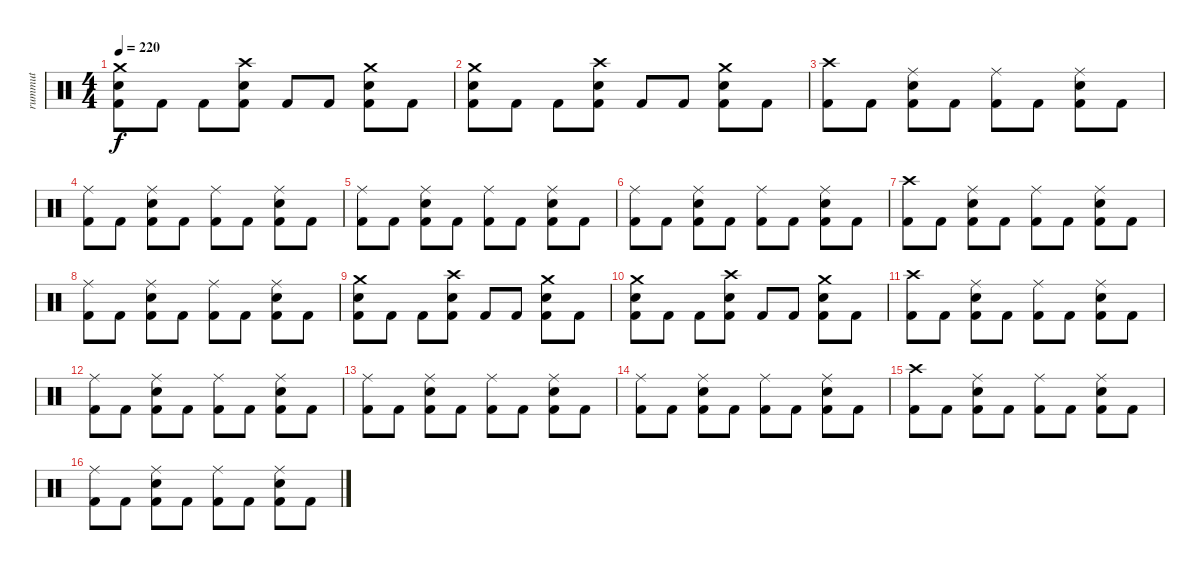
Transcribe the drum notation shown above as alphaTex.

\track ("rummut" "rummut") {instrument percussion}
\staff {score}
\articulation defaults
\ts (4 4)
\tempo 220
\clef neutral
\ks c
("Crash medium (hit)" "Electric Snare (hit)" "Kick (hit) 2").8{dy f} "Kick (hit) 2".8 "Kick (hit) 2".8 ("Crash high (hit)" "Electric Snare (hit)" "Kick (hit) 2").8 "Kick (hit) 2".8 "Kick (hit) 2".8 ("Crash medium (hit)" "Electric Snare (hit)" "Kick (hit) 2").8 "Kick (hit) 2".8 |
("Crash medium (hit)" "Electric Snare (hit)" "Kick (hit) 2").8 "Kick (hit) 2".8 "Kick (hit) 2".8 ("Crash high (hit)" "Electric Snare (hit)" "Kick (hit) 2").8 "Kick (hit) 2".8 "Kick (hit) 2".8 ("Crash medium (hit)" "Electric Snare (hit)" "Kick (hit) 2").8 "Kick (hit) 2".8 |
("Crash high (hit)" "Kick (hit) 2").8 "Kick (hit) 2".8 ("Ride (middle)" "Electric Snare (hit)" "Kick (hit) 2").8 "Kick (hit) 2".8 ("Ride (middle)" "Kick (hit) 2").8 "Kick (hit) 2".8 ("Ride (middle)" "Electric Snare (hit)" "Kick (hit) 2").8 "Kick (hit) 2".8 |
("Ride (middle)" "Kick (hit) 2").8 "Kick (hit) 2".8 ("Ride (middle)" "Electric Snare (hit)" "Kick (hit) 2").8 "Kick (hit) 2".8 ("Ride (middle)" "Kick (hit) 2").8 "Kick (hit) 2".8 ("Ride (middle)" "Electric Snare (hit)" "Kick (hit) 2").8 "Kick (hit) 2".8 |
("Ride (middle)" "Kick (hit) 2").8 "Kick (hit) 2".8 ("Ride (middle)" "Electric Snare (hit)" "Kick (hit) 2").8 "Kick (hit) 2".8 ("Ride (middle)" "Kick (hit) 2").8 "Kick (hit) 2".8 ("Ride (middle)" "Electric Snare (hit)" "Kick (hit) 2").8 "Kick (hit) 2".8 |
("Ride (middle)" "Kick (hit) 2").8 "Kick (hit) 2".8 ("Ride (middle)" "Electric Snare (hit)" "Kick (hit) 2").8 "Kick (hit) 2".8 ("Ride (middle)" "Kick (hit) 2").8 "Kick (hit) 2".8 ("Ride (middle)" "Electric Snare (hit)" "Kick (hit) 2").8 "Kick (hit) 2".8 |
("Crash high (hit)" "Kick (hit) 2").8 "Kick (hit) 2".8 ("Ride (middle)" "Electric Snare (hit)" "Kick (hit) 2").8 "Kick (hit) 2".8 ("Ride (middle)" "Kick (hit) 2").8 "Kick (hit) 2".8 ("Ride (middle)" "Electric Snare (hit)" "Kick (hit) 2").8 "Kick (hit) 2".8 |
("Ride (middle)" "Kick (hit) 2").8 "Kick (hit) 2".8 ("Ride (middle)" "Electric Snare (hit)" "Kick (hit) 2").8 "Kick (hit) 2".8 ("Ride (middle)" "Kick (hit) 2").8 "Kick (hit) 2".8 ("Ride (middle)" "Electric Snare (hit)" "Kick (hit) 2").8 "Kick (hit) 2".8 |
("Crash medium (hit)" "Electric Snare (hit)" "Kick (hit) 2").8 "Kick (hit) 2".8 "Kick (hit) 2".8 ("Crash high (hit)" "Electric Snare (hit)" "Kick (hit) 2").8 "Kick (hit) 2".8 "Kick (hit) 2".8 ("Crash medium (hit)" "Electric Snare (hit)" "Kick (hit) 2").8 "Kick (hit) 2".8 |
("Crash medium (hit)" "Electric Snare (hit)" "Kick (hit) 2").8 "Kick (hit) 2".8 "Kick (hit) 2".8 ("Crash high (hit)" "Electric Snare (hit)" "Kick (hit) 2").8 "Kick (hit) 2".8 "Kick (hit) 2".8 ("Crash medium (hit)" "Electric Snare (hit)" "Kick (hit) 2").8 "Kick (hit) 2".8 |
("Crash high (hit)" "Kick (hit) 2").8 "Kick (hit) 2".8 ("Ride (middle)" "Electric Snare (hit)" "Kick (hit) 2").8 "Kick (hit) 2".8 ("Ride (middle)" "Kick (hit) 2").8 "Kick (hit) 2".8 ("Ride (middle)" "Electric Snare (hit)" "Kick (hit) 2").8 "Kick (hit) 2".8 |
("Ride (middle)" "Kick (hit) 2").8 "Kick (hit) 2".8 ("Ride (middle)" "Electric Snare (hit)" "Kick (hit) 2").8 "Kick (hit) 2".8 ("Ride (middle)" "Kick (hit) 2").8 "Kick (hit) 2".8 ("Ride (middle)" "Electric Snare (hit)" "Kick (hit) 2").8 "Kick (hit) 2".8 |
("Ride (middle)" "Kick (hit) 2").8 "Kick (hit) 2".8 ("Ride (middle)" "Electric Snare (hit)" "Kick (hit) 2").8 "Kick (hit) 2".8 ("Ride (middle)" "Kick (hit) 2").8 "Kick (hit) 2".8 ("Ride (middle)" "Electric Snare (hit)" "Kick (hit) 2").8 "Kick (hit) 2".8 |
("Ride (middle)" "Kick (hit) 2").8 "Kick (hit) 2".8 ("Ride (middle)" "Electric Snare (hit)" "Kick (hit) 2").8 "Kick (hit) 2".8 ("Ride (middle)" "Kick (hit) 2").8 "Kick (hit) 2".8 ("Ride (middle)" "Electric Snare (hit)" "Kick (hit) 2").8 "Kick (hit) 2".8 |
("Crash high (hit)" "Kick (hit) 2").8 "Kick (hit) 2".8 ("Ride (middle)" "Electric Snare (hit)" "Kick (hit) 2").8 "Kick (hit) 2".8 ("Ride (middle)" "Kick (hit) 2").8 "Kick (hit) 2".8 ("Ride (middle)" "Electric Snare (hit)" "Kick (hit) 2").8 "Kick (hit) 2".8 |
("Ride (middle)" "Kick (hit) 2").8 "Kick (hit) 2".8 ("Ride (middle)" "Electric Snare (hit)" "Kick (hit) 2").8 "Kick (hit) 2".8 ("Ride (middle)" "Kick (hit) 2").8 "Kick (hit) 2".8 ("Ride (middle)" "Electric Snare (hit)" "Kick (hit) 2").8 "Kick (hit) 2".8
